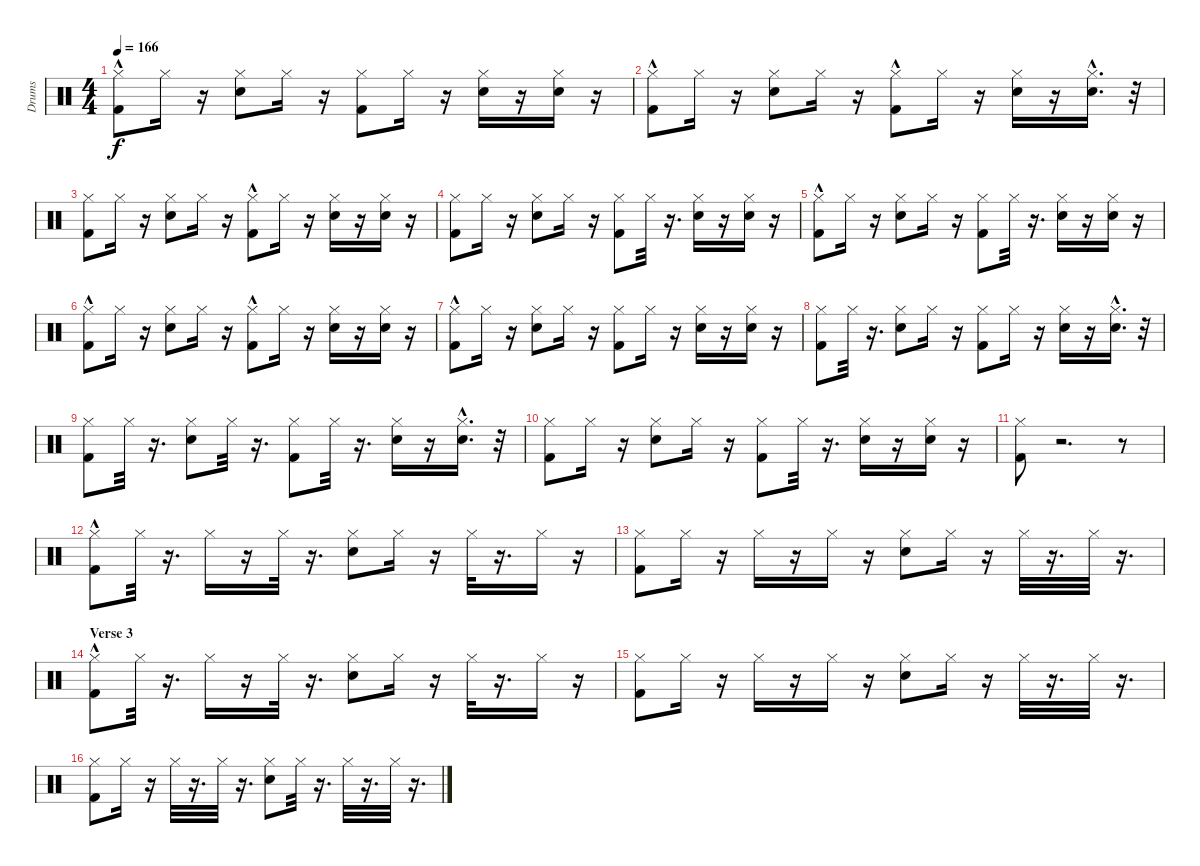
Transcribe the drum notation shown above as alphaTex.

\track ("Drums" "Drums") {instrument percussion}
\staff {score}
\articulation defaults
\ts (4 4)
\tempo 166
\clef neutral
\ks c
("Kick (hit) 2"{hac} "Hi-Hat (closed)").8{dy f} "Hi-Hat (closed)".16 r.16 ("Hi-Hat (closed)" "Snare (hit) 2").8 "Hi-Hat (closed)".16 r.16 ("Kick (hit) 2" "Hi-Hat (closed)").8 "Hi-Hat (closed)".16 r.16 ("Hi-Hat (closed)" "Snare (hit) 2").16 r.16 ("Hi-Hat (closed)" "Snare (hit) 2").16 r.16 |
("Kick (hit) 2"{hac} "Hi-Hat (closed)").8 "Hi-Hat (closed)".16 r.16 ("Hi-Hat (closed)" "Snare (hit) 2").8 "Hi-Hat (closed)".16 r.16 ("Kick (hit) 2"{hac} "Hi-Hat (closed)").8 "Hi-Hat (closed)".16 r.16 ("Hi-Hat (closed)" "Snare (hit) 2").16 r.16 ("Hi-Hat (closed)" "Snare (hit) 2"{hac}).16{d} r.32 |
("Kick (hit) 2" "Hi-Hat (closed)").8 "Hi-Hat (closed)".16 r.16 ("Hi-Hat (closed)" "Snare (hit) 2").8 "Hi-Hat (closed)".16 r.16 ("Kick (hit) 2"{hac} "Hi-Hat (closed)").8 "Hi-Hat (closed)".16 r.16 ("Hi-Hat (closed)" "Snare (hit) 2").16 r.16 ("Hi-Hat (closed)" "Snare (hit) 2").16 r.16 |
("Kick (hit) 2" "Hi-Hat (closed)").8 "Hi-Hat (closed)".16 r.16 ("Hi-Hat (closed)" "Snare (hit) 2").8 "Hi-Hat (closed)".16 r.16 ("Kick (hit) 2" "Hi-Hat (closed)").8 "Hi-Hat (closed)".32 r.16{d} ("Hi-Hat (closed)" "Snare (hit) 2").16 r.16 ("Hi-Hat (closed)" "Snare (hit) 2").16 r.16 |
("Kick (hit) 2"{hac} "Hi-Hat (closed)").8 "Hi-Hat (closed)".16 r.16 ("Hi-Hat (closed)" "Snare (hit) 2").8 "Hi-Hat (closed)".16 r.16 ("Kick (hit) 2" "Hi-Hat (closed)").8 "Hi-Hat (closed)".32 r.16{d} ("Hi-Hat (closed)" "Snare (hit) 2").16 r.16 ("Hi-Hat (closed)" "Snare (hit) 2").16 r.16 |
("Kick (hit) 2"{hac} "Hi-Hat (closed)").8 "Hi-Hat (closed)".16 r.16 ("Hi-Hat (closed)" "Snare (hit) 2").8 "Hi-Hat (closed)".16 r.16 ("Kick (hit) 2"{hac} "Hi-Hat (closed)").8 "Hi-Hat (closed)".16 r.16 ("Hi-Hat (closed)" "Snare (hit) 2").16 r.16 ("Hi-Hat (closed)" "Snare (hit) 2").16 r.16 |
("Kick (hit) 2"{hac} "Hi-Hat (closed)").8 "Hi-Hat (closed)".16 r.16 ("Hi-Hat (closed)" "Snare (hit) 2").8 "Hi-Hat (closed)".16 r.16 ("Kick (hit) 2" "Hi-Hat (closed)").8 "Hi-Hat (closed)".16 r.16 ("Hi-Hat (closed)" "Snare (hit) 2").16 r.16 ("Hi-Hat (closed)" "Snare (hit) 2").16 r.16 |
("Kick (hit) 2" "Hi-Hat (closed)").8 "Hi-Hat (closed)".32 r.16{d} ("Hi-Hat (closed)" "Snare (hit) 2").8 "Hi-Hat (closed)".16 r.16 ("Kick (hit) 2" "Hi-Hat (closed)").8 "Hi-Hat (closed)".16 r.16 ("Hi-Hat (closed)" "Snare (hit) 2").16 r.16 ("Hi-Hat (closed)" "Snare (hit) 2"{hac}).16{d} r.32 |
("Kick (hit) 2" "Hi-Hat (closed)").8 "Hi-Hat (closed)".32 r.16{d} ("Hi-Hat (closed)" "Snare (hit) 2").8 "Hi-Hat (closed)".32 r.16{d} ("Kick (hit) 2" "Hi-Hat (closed)").8 "Hi-Hat (closed)".32 r.16{d} ("Hi-Hat (closed)" "Snare (hit) 2").16 r.16 ("Hi-Hat (closed)" "Snare (hit) 2"{hac}).16{d} r.32 |
("Kick (hit) 2" "Hi-Hat (closed)").8 "Hi-Hat (closed)".16 r.16 ("Hi-Hat (closed)" "Snare (hit) 2").8 "Hi-Hat (closed)".16 r.16 ("Kick (hit) 2" "Hi-Hat (closed)").8 "Hi-Hat (closed)".32 r.16{d} ("Hi-Hat (closed)" "Snare (hit) 2").16 r.16 ("Hi-Hat (closed)" "Snare (hit) 2").16 r.16 |
("Kick (hit) 2" "Hi-Hat (closed)").8 r.2{d} r.8 |
("Kick (hit) 2"{hac} "Hi-Hat (closed)").8 "Hi-Hat (closed)".32 r.16{d} "Hi-Hat (closed)".16 r.16 "Hi-Hat (closed)".32 r.16{d} ("Hi-Hat (closed)" "Snare (hit) 2").8 "Hi-Hat (closed)".16 r.16 "Hi-Hat (closed)".32 r.16{d} "Hi-Hat (closed)".16 r.16 |
("Kick (hit) 2" "Hi-Hat (closed)").8 "Hi-Hat (closed)".16 r.16 "Hi-Hat (closed)".16 r.16 "Hi-Hat (closed)".16 r.16 ("Hi-Hat (closed)" "Snare (hit) 2").8 "Hi-Hat (closed)".16 r.16 "Hi-Hat (closed)".32 r.16{d} "Hi-Hat (closed)".32 r.16{d} |
\section ("" "Verse 3")
("Kick (hit) 2"{hac} "Hi-Hat (closed)").8 "Hi-Hat (closed)".32 r.16{d} "Hi-Hat (closed)".16 r.16 "Hi-Hat (closed)".32 r.16{d} ("Hi-Hat (closed)" "Snare (hit) 2").8 "Hi-Hat (closed)".16 r.16 "Hi-Hat (closed)".32 r.16{d} "Hi-Hat (closed)".16 r.16 |
("Kick (hit) 2" "Hi-Hat (closed)").8 "Hi-Hat (closed)".16 r.16 "Hi-Hat (closed)".16 r.16 "Hi-Hat (closed)".16 r.16 ("Hi-Hat (closed)" "Snare (hit) 2").8 "Hi-Hat (closed)".16 r.16 "Hi-Hat (closed)".32 r.16{d} "Hi-Hat (closed)".32 r.16{d} |
("Kick (hit) 2" "Hi-Hat (closed)").8 "Hi-Hat (closed)".16 r.16 "Hi-Hat (closed)".32 r.16{d} "Hi-Hat (closed)".32 r.16{d} ("Hi-Hat (closed)" "Snare (hit) 2").8 "Hi-Hat (closed)".32 r.16{d} "Hi-Hat (closed)".32 r.16{d} "Hi-Hat (closed)".32 r.16{d}
